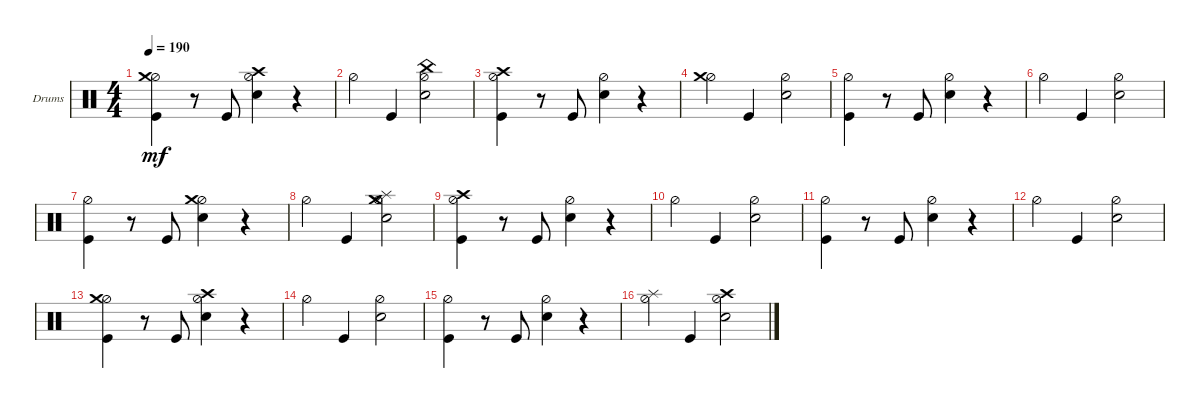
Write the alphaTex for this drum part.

\defaultSystemsLayout 4
\bracketExtendMode groupsimilarinstruments
\firstSystemTrackNameOrientation horizontal
\otherSystemsTrackNameOrientation horizontal
\track ("Drumkit" "Drums") {instrument percussion}
\staff {score}
\articulation defaults
\ts (4 4)
\tempo 190
\clef neutral
\ks c
("Hi-Hat (half)" "Kick (hit)" "Crash medium (hit)").4{dy mf} r.8 "Kick (hit)".8 ("Hi-Hat (half)" "Snare (hit) 2" "Crash high (hit)").4 r.4 |
"Hi-Hat (half)".4 "Kick (hit)".4 ("Snare (hit) 2" "Hi-Hat (half)" "China (hit)").2 |
("Hi-Hat (half)" "Kick (hit)" "Crash high (hit)").4 r.8 "Kick (hit)".8 ("Hi-Hat (half)" "Snare (hit) 2").4 r.4 |
("Hi-Hat (half)" "Crash medium (hit)").4 "Kick (hit)".4 ("Snare (hit) 2" "Hi-Hat (half)").2 |
("Hi-Hat (half)" "Kick (hit)").4 r.8 "Kick (hit)".8 ("Hi-Hat (half)" "Snare (hit) 2").4 r.4 |
"Hi-Hat (half)".4 "Kick (hit)".4 ("Snare (hit) 2" "Hi-Hat (half)").2 |
("Hi-Hat (half)" "Kick (hit)").4 r.8 "Kick (hit)".8 ("Hi-Hat (half)" "Snare (hit) 2" "Crash medium (hit)").4 r.4 |
"Hi-Hat (half)".4 "Kick (hit)".4 ("Snare (hit) 2" "Hi-Hat (half)" "Crash medium (hit)" "Splash (hit)").2 |
("Hi-Hat (half)" "Kick (hit)" "Crash high (hit)").4 r.8 "Kick (hit)".8 ("Hi-Hat (half)" "Snare (hit) 2").4 r.4 |
"Hi-Hat (half)".4 "Kick (hit)".4 ("Snare (hit) 2" "Hi-Hat (half)").2 |
("Hi-Hat (half)" "Kick (hit)").4 r.8 "Kick (hit)".8 ("Hi-Hat (half)" "Snare (hit) 2").4 r.4 |
"Hi-Hat (half)".4 "Kick (hit)".4 ("Snare (hit) 2" "Hi-Hat (half)").2 |
("Hi-Hat (half)" "Kick (hit)" "Crash medium (hit)").4 r.8 "Kick (hit)".8 ("Hi-Hat (half)" "Snare (hit) 2" "Crash high (hit)").4 r.4 |
"Hi-Hat (half)".4 "Kick (hit)".4 ("Snare (hit) 2" "Hi-Hat (half)").2 |
("Hi-Hat (half)" "Kick (hit)").4 r.8 "Kick (hit)".8 ("Hi-Hat (half)" "Snare (hit) 2").4 r.4 |
("Hi-Hat (half)" "Splash (hit)").4 "Kick (hit)".4 ("Snare (hit) 2" "Hi-Hat (half)" "Crash high (hit)").2
